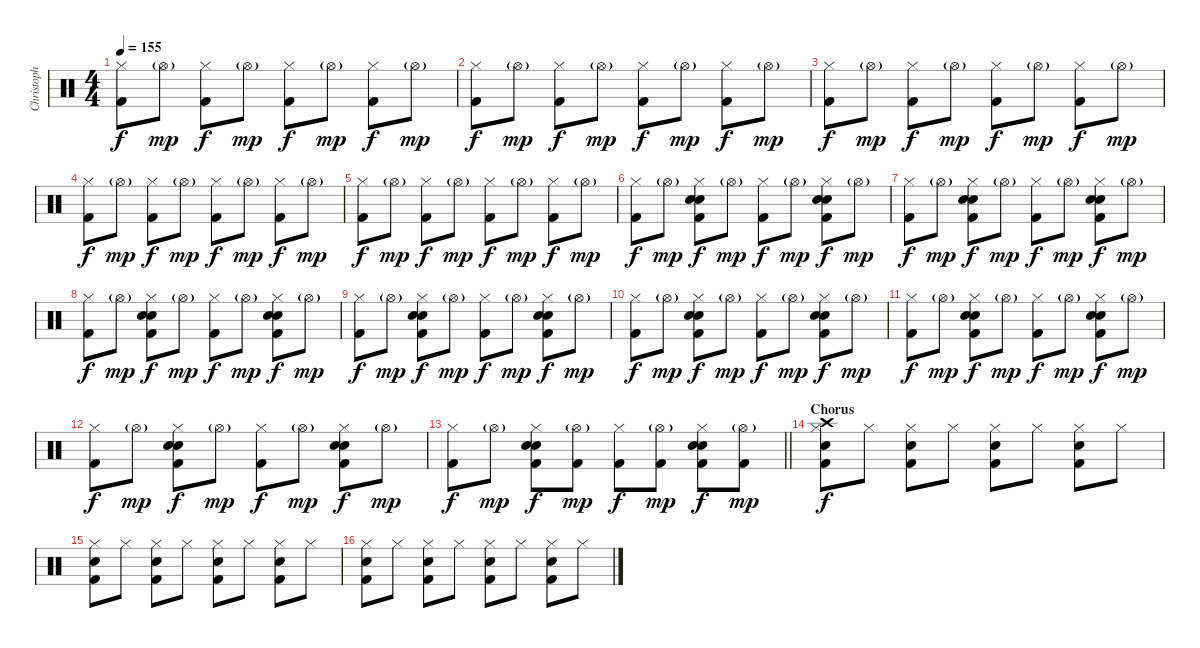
\track ("Christoph \"Doom\" Schneider" "Christoph ") {instrument percussion}
\staff {score}
\articulation defaults
\ts (4 4)
\tempo 155
\clef neutral
\ks c
("Hi-Hat (closed)" "Kick (hit) 2").8{dy f} "Hi-Hat (open)"{g}.8{dy mp} ("Hi-Hat (closed)" "Kick (hit) 2").8{dy f} "Hi-Hat (open)"{g}.8{dy mp} ("Hi-Hat (closed)" "Kick (hit) 2").8{dy f} "Hi-Hat (open)"{g}.8{dy mp} ("Hi-Hat (closed)" "Kick (hit) 2").8{dy f} "Hi-Hat (open)"{g}.8{dy mp} |
("Hi-Hat (closed)" "Kick (hit) 2").8{dy f} "Hi-Hat (open)"{g}.8{dy mp} ("Hi-Hat (closed)" "Kick (hit) 2").8{dy f} "Hi-Hat (open)"{g}.8{dy mp} ("Hi-Hat (closed)" "Kick (hit) 2").8{dy f} "Hi-Hat (open)"{g}.8{dy mp} ("Hi-Hat (closed)" "Kick (hit) 2").8{dy f} "Hi-Hat (open)"{g}.8{dy mp} |
("Hi-Hat (closed)" "Kick (hit) 2").8{dy f} "Hi-Hat (open)"{g}.8{dy mp} ("Hi-Hat (closed)" "Kick (hit) 2").8{dy f} "Hi-Hat (open)"{g}.8{dy mp} ("Hi-Hat (closed)" "Kick (hit) 2").8{dy f} "Hi-Hat (open)"{g}.8{dy mp} ("Hi-Hat (closed)" "Kick (hit) 2").8{dy f} "Hi-Hat (open)"{g}.8{dy mp} |
("Hi-Hat (closed)" "Kick (hit) 2").8{dy f} "Hi-Hat (open)"{g}.8{dy mp} ("Hi-Hat (closed)" "Kick (hit) 2").8{dy f} "Hi-Hat (open)"{g}.8{dy mp} ("Hi-Hat (closed)" "Kick (hit) 2").8{dy f} "Hi-Hat (open)"{g}.8{dy mp} ("Hi-Hat (closed)" "Kick (hit) 2").8{dy f} "Hi-Hat (open)"{g}.8{dy mp} |
("Hi-Hat (closed)" "Kick (hit) 2").8{dy f} "Hi-Hat (open)"{g}.8{dy mp} ("Hi-Hat (closed)" "Kick (hit) 2").8{dy f} "Hi-Hat (open)"{g}.8{dy mp} ("Hi-Hat (closed)" "Kick (hit) 2").8{dy f} "Hi-Hat (open)"{g}.8{dy mp} ("Hi-Hat (closed)" "Kick (hit) 2").8{dy f} "Hi-Hat (open)"{g}.8{dy mp} |
("Hi-Hat (closed)" "Kick (hit) 2").8{dy f} "Hi-Hat (open)"{g}.8{dy mp} ("Hi-Hat (closed)" "Snare (hit) 2" "Electric Snare (hit)" "Kick (hit) 2").8{dy f} "Hi-Hat (open)"{g}.8{dy mp} ("Hi-Hat (closed)" "Kick (hit) 2").8{dy f} "Hi-Hat (open)"{g}.8{dy mp} ("Hi-Hat (closed)" "Snare (hit) 2" "Electric Snare (hit)" "Kick (hit) 2").8{dy f} "Hi-Hat (open)"{g}.8{dy mp} |
("Hi-Hat (closed)" "Kick (hit) 2").8{dy f} "Hi-Hat (open)"{g}.8{dy mp} ("Hi-Hat (closed)" "Snare (hit) 2" "Electric Snare (hit)" "Kick (hit) 2").8{dy f} "Hi-Hat (open)"{g}.8{dy mp} ("Hi-Hat (closed)" "Kick (hit) 2").8{dy f} "Hi-Hat (open)"{g}.8{dy mp} ("Hi-Hat (closed)" "Snare (hit) 2" "Electric Snare (hit)" "Kick (hit) 2").8{dy f} "Hi-Hat (open)"{g}.8{dy mp} |
("Hi-Hat (closed)" "Kick (hit) 2").8{dy f} "Hi-Hat (open)"{g}.8{dy mp} ("Hi-Hat (closed)" "Snare (hit) 2" "Electric Snare (hit)" "Kick (hit) 2").8{dy f} "Hi-Hat (open)"{g}.8{dy mp} ("Hi-Hat (closed)" "Kick (hit) 2").8{dy f} "Hi-Hat (open)"{g}.8{dy mp} ("Hi-Hat (closed)" "Snare (hit) 2" "Electric Snare (hit)" "Kick (hit) 2").8{dy f} "Hi-Hat (open)"{g}.8{dy mp} |
("Hi-Hat (closed)" "Kick (hit) 2").8{dy f} "Hi-Hat (open)"{g}.8{dy mp} ("Hi-Hat (closed)" "Snare (hit) 2" "Electric Snare (hit)" "Kick (hit) 2").8{dy f} "Hi-Hat (open)"{g}.8{dy mp} ("Hi-Hat (closed)" "Kick (hit) 2").8{dy f} "Hi-Hat (open)"{g}.8{dy mp} ("Hi-Hat (closed)" "Snare (hit) 2" "Electric Snare (hit)" "Kick (hit) 2").8{dy f} "Hi-Hat (open)"{g}.8{dy mp} |
("Hi-Hat (closed)" "Kick (hit) 2").8{dy f} "Hi-Hat (open)"{g}.8{dy mp} ("Hi-Hat (closed)" "Snare (hit) 2" "Electric Snare (hit)" "Kick (hit) 2").8{dy f} "Hi-Hat (open)"{g}.8{dy mp} ("Hi-Hat (closed)" "Kick (hit) 2").8{dy f} "Hi-Hat (open)"{g}.8{dy mp} ("Hi-Hat (closed)" "Snare (hit) 2" "Electric Snare (hit)" "Kick (hit) 2").8{dy f} "Hi-Hat (open)"{g}.8{dy mp} |
("Hi-Hat (closed)" "Kick (hit) 2").8{dy f} "Hi-Hat (open)"{g}.8{dy mp} ("Hi-Hat (closed)" "Snare (hit) 2" "Electric Snare (hit)" "Kick (hit) 2").8{dy f} "Hi-Hat (open)"{g}.8{dy mp} ("Hi-Hat (closed)" "Kick (hit) 2").8{dy f} "Hi-Hat (open)"{g}.8{dy mp} ("Hi-Hat (closed)" "Snare (hit) 2" "Electric Snare (hit)" "Kick (hit) 2").8{dy f} "Hi-Hat (open)"{g}.8{dy mp} |
("Hi-Hat (closed)" "Kick (hit) 2").8{dy f} "Hi-Hat (open)"{g}.8{dy mp} ("Hi-Hat (closed)" "Snare (hit) 2" "Electric Snare (hit)" "Kick (hit) 2").8{dy f} "Hi-Hat (open)"{g}.8{dy mp} ("Hi-Hat (closed)" "Kick (hit) 2").8{dy f} "Hi-Hat (open)"{g}.8{dy mp} ("Hi-Hat (closed)" "Snare (hit) 2" "Electric Snare (hit)" "Kick (hit) 2").8{dy f} "Hi-Hat (open)"{g}.8{dy mp} |
\barLineRight lightlight
("Hi-Hat (closed)" "Kick (hit) 2").8{dy f} "Hi-Hat (open)"{g}.8{dy mp} ("Hi-Hat (closed)" "Snare (hit) 2" "Electric Snare (hit)" "Kick (hit) 2").8{dy f} ("Hi-Hat (open)"{g} "Kick (hit) 2").8{dy mp} ("Hi-Hat (closed)" "Kick (hit) 2").8{dy f} ("Hi-Hat (open)"{g} "Kick (hit) 2").8{dy mp} ("Hi-Hat (closed)" "Snare (hit) 2" "Electric Snare (hit)" "Kick (hit) 2").8{dy f} ("Hi-Hat (open)"{g} "Kick (hit) 2").8{dy mp} |
\section ("" "Chorus")
("Crash high (hit)" "Hi-Hat (closed)" "Snare (hit) 2" "Kick (hit) 2").8{dy f} "Hi-Hat (closed)".8 ("Hi-Hat (closed)" "Snare (hit) 2" "Kick (hit) 2").8 "Hi-Hat (closed)".8 ("Hi-Hat (closed)" "Snare (hit) 2" "Kick (hit) 2").8 "Hi-Hat (closed)".8 ("Hi-Hat (closed)" "Snare (hit) 2" "Kick (hit) 2").8 "Hi-Hat (closed)".8 |
("Hi-Hat (closed)" "Snare (hit) 2" "Kick (hit) 2").8 "Hi-Hat (closed)".8 ("Hi-Hat (closed)" "Snare (hit) 2" "Kick (hit) 2").8 "Hi-Hat (closed)".8 ("Hi-Hat (closed)" "Snare (hit) 2" "Kick (hit) 2").8 "Hi-Hat (closed)".8 ("Hi-Hat (closed)" "Snare (hit) 2" "Kick (hit) 2").8 "Hi-Hat (closed)".8 |
("Hi-Hat (closed)" "Snare (hit) 2" "Kick (hit) 2").8 "Hi-Hat (closed)".8 ("Hi-Hat (closed)" "Snare (hit) 2" "Kick (hit) 2").8 "Hi-Hat (closed)".8 ("Hi-Hat (closed)" "Snare (hit) 2" "Kick (hit) 2").8 "Hi-Hat (closed)".8 ("Hi-Hat (closed)" "Snare (hit) 2" "Kick (hit) 2").8 "Hi-Hat (closed)".8
